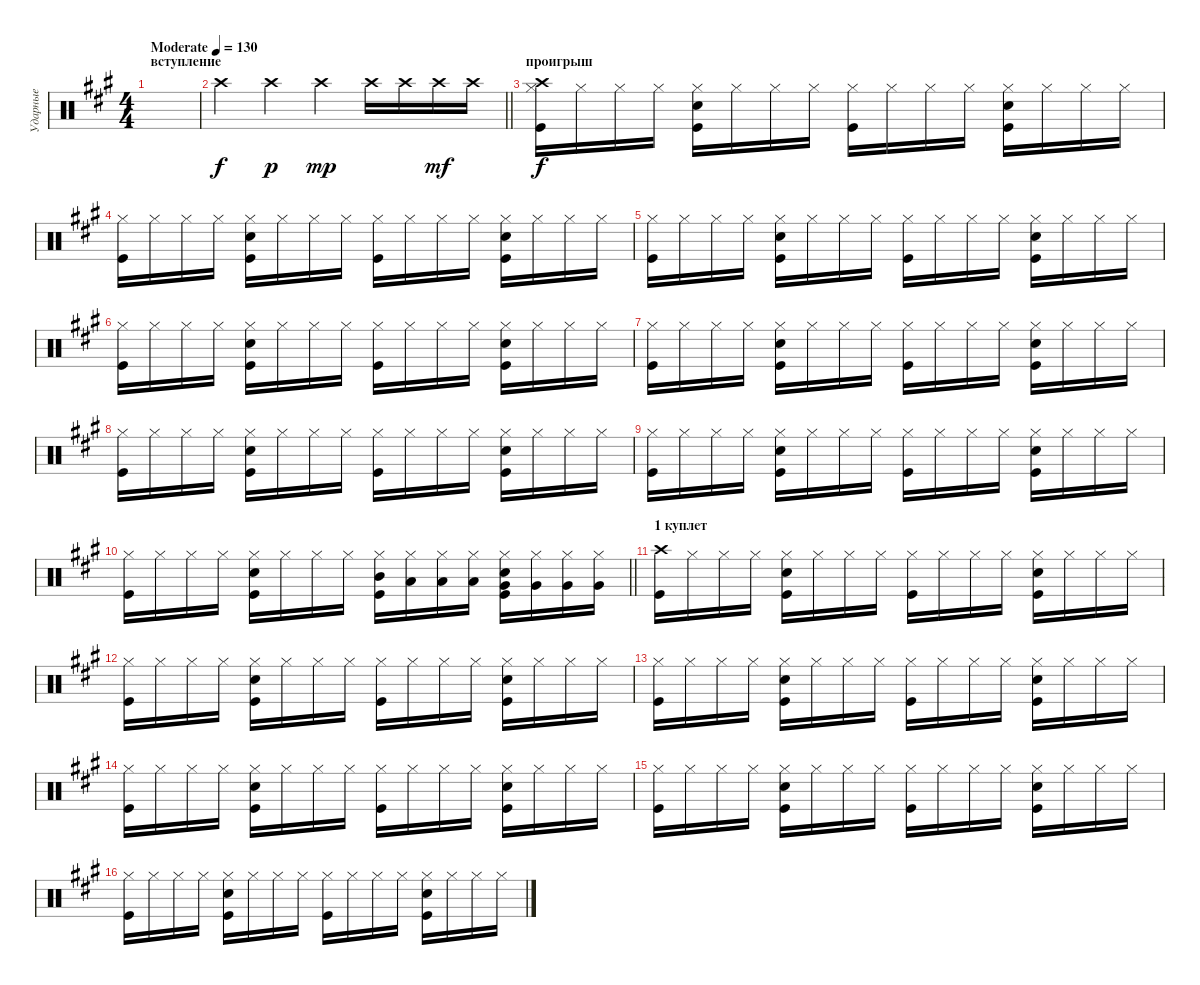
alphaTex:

\track ("Ударные" "Ударные") {instrument percussion}
\staff {score}
\articulation defaults
\ts (4 4)
\section ("" "вступление")
\tempo (130 "Moderate")
\clef neutral
\ks f#minor
|
\barLineRight lightlight "Crash high (hit)".4 "Crash high (hit)".4{dy p} "Crash high (hit)".4{dy mp} "Crash high (hit)".16 "Crash high (hit)".16 "Crash high (hit)".16{dy mf} "Crash high (hit)".16
|
\section ("" "проигрыш")
("Kick (hit)" "Hi-Hat (closed)" "Crash high (hit)").16{dy f} "Hi-Hat (closed)".16 "Hi-Hat (closed)".16 "Hi-Hat (closed)".16 ("Hi-Hat (closed)" "Snare (hit) 2" "Kick (hit)").16 "Hi-Hat (closed)".16 "Hi-Hat (closed)".16 "Hi-Hat (closed)".16 ("Hi-Hat (closed)" "Kick (hit)").16 "Hi-Hat (closed)".16 "Hi-Hat (closed)".16 "Hi-Hat (closed)".16 ("Hi-Hat (closed)" "Snare (hit) 2" "Kick (hit)").16 "Hi-Hat (closed)".16 "Hi-Hat (closed)".16 "Hi-Hat (closed)".16 |
("Hi-Hat (closed)" "Kick (hit)").16 "Hi-Hat (closed)".16 "Hi-Hat (closed)".16 "Hi-Hat (closed)".16 ("Hi-Hat (closed)" "Snare (hit) 2" "Kick (hit)").16 "Hi-Hat (closed)".16 "Hi-Hat (closed)".16 "Hi-Hat (closed)".16 ("Hi-Hat (closed)" "Kick (hit)").16 "Hi-Hat (closed)".16 "Hi-Hat (closed)".16 "Hi-Hat (closed)".16 ("Hi-Hat (closed)" "Snare (hit) 2" "Kick (hit)").16 "Hi-Hat (closed)".16 "Hi-Hat (closed)".16 "Hi-Hat (closed)".16 |
("Hi-Hat (closed)" "Kick (hit)").16 "Hi-Hat (closed)".16 "Hi-Hat (closed)".16 "Hi-Hat (closed)".16 ("Hi-Hat (closed)" "Snare (hit) 2" "Kick (hit)").16 "Hi-Hat (closed)".16 "Hi-Hat (closed)".16 "Hi-Hat (closed)".16 ("Hi-Hat (closed)" "Kick (hit)").16 "Hi-Hat (closed)".16 "Hi-Hat (closed)".16 "Hi-Hat (closed)".16 ("Hi-Hat (closed)" "Snare (hit) 2" "Kick (hit)").16 "Hi-Hat (closed)".16 "Hi-Hat (closed)".16 "Hi-Hat (closed)".16 |
("Hi-Hat (closed)" "Kick (hit)").16 "Hi-Hat (closed)".16 "Hi-Hat (closed)".16 "Hi-Hat (closed)".16 ("Hi-Hat (closed)" "Snare (hit) 2" "Kick (hit)").16 "Hi-Hat (closed)".16 "Hi-Hat (closed)".16 "Hi-Hat (closed)".16 ("Hi-Hat (closed)" "Kick (hit)").16 "Hi-Hat (closed)".16 "Hi-Hat (closed)".16 "Hi-Hat (closed)".16 ("Hi-Hat (closed)" "Snare (hit) 2" "Kick (hit)").16 "Hi-Hat (closed)".16 "Hi-Hat (closed)".16 "Hi-Hat (closed)".16 |
("Kick (hit)" "Hi-Hat (closed)").16 "Hi-Hat (closed)".16 "Hi-Hat (closed)".16 "Hi-Hat (closed)".16 ("Hi-Hat (closed)" "Snare (hit) 2" "Kick (hit)").16 "Hi-Hat (closed)".16 "Hi-Hat (closed)".16 "Hi-Hat (closed)".16 ("Hi-Hat (closed)" "Kick (hit)").16 "Hi-Hat (closed)".16 "Hi-Hat (closed)".16 "Hi-Hat (closed)".16 ("Hi-Hat (closed)" "Snare (hit) 2" "Kick (hit)").16 "Hi-Hat (closed)".16 "Hi-Hat (closed)".16 "Hi-Hat (closed)".16 |
("Hi-Hat (closed)" "Kick (hit)").16 "Hi-Hat (closed)".16 "Hi-Hat (closed)".16 "Hi-Hat (closed)".16 ("Hi-Hat (closed)" "Snare (hit) 2" "Kick (hit)").16 "Hi-Hat (closed)".16 "Hi-Hat (closed)".16 "Hi-Hat (closed)".16 ("Hi-Hat (closed)" "Kick (hit)").16 "Hi-Hat (closed)".16 "Hi-Hat (closed)".16 "Hi-Hat (closed)".16 ("Hi-Hat (closed)" "Snare (hit) 2" "Kick (hit)").16 "Hi-Hat (closed)".16 "Hi-Hat (closed)".16 "Hi-Hat (closed)".16 |
("Hi-Hat (closed)" "Kick (hit)").16 "Hi-Hat (closed)".16 "Hi-Hat (closed)".16 "Hi-Hat (closed)".16 ("Hi-Hat (closed)" "Snare (hit) 2" "Kick (hit)").16 "Hi-Hat (closed)".16 "Hi-Hat (closed)".16 "Hi-Hat (closed)".16 ("Hi-Hat (closed)" "Kick (hit)").16 "Hi-Hat (closed)".16 "Hi-Hat (closed)".16 "Hi-Hat (closed)".16 ("Hi-Hat (closed)" "Snare (hit) 2" "Kick (hit)").16 "Hi-Hat (closed)".16 "Hi-Hat (closed)".16 "Hi-Hat (closed)".16 |
\barLineRight lightlight
("Hi-Hat (closed)" "Kick (hit)").16 "Hi-Hat (closed)".16 "Hi-Hat (closed)".16 "Hi-Hat (closed)".16 ("Hi-Hat (closed)" "Snare (hit) 2" "Kick (hit)").16 "Hi-Hat (closed)".16 "Hi-Hat (closed)".16 "Hi-Hat (closed)".16 ("Hi-Hat (closed)" "Kick (hit)" "Mid Tom (hit)").16 ("Hi-Hat (closed)" "Low Tom (hit)").16 ("Hi-Hat (closed)" "Low Tom (hit)").16 ("Hi-Hat (closed)" "Low Tom (hit)").16 ("Hi-Hat (closed)" "Snare (hit) 2" "Kick (hit)" "Very Low Tom (hit)").16 ("Hi-Hat (closed)" "Very Low Tom (hit)").16 ("Hi-Hat (closed)" "Very Low Tom (hit)").16 ("Hi-Hat (closed)" "Very Low Tom (hit)").16 |
\section ("" "1 куплет")
("Kick (hit)" "Crash high (hit)").16 "Hi-Hat (closed)".16 "Hi-Hat (closed)".16 "Hi-Hat (closed)".16 ("Hi-Hat (closed)" "Snare (hit) 2" "Kick (hit)").16 "Hi-Hat (closed)".16 "Hi-Hat (closed)".16 "Hi-Hat (closed)".16 ("Hi-Hat (closed)" "Kick (hit)").16 "Hi-Hat (closed)".16 "Hi-Hat (closed)".16 "Hi-Hat (closed)".16 ("Hi-Hat (closed)" "Snare (hit) 2" "Kick (hit)").16 "Hi-Hat (closed)".16 "Hi-Hat (closed)".16 "Hi-Hat (closed)".16 |
("Hi-Hat (closed)" "Kick (hit)").16 "Hi-Hat (closed)".16 "Hi-Hat (closed)".16 "Hi-Hat (closed)".16 ("Hi-Hat (closed)" "Snare (hit) 2" "Kick (hit)").16 "Hi-Hat (closed)".16 "Hi-Hat (closed)".16 "Hi-Hat (closed)".16 ("Hi-Hat (closed)" "Kick (hit)").16 "Hi-Hat (closed)".16 "Hi-Hat (closed)".16 "Hi-Hat (closed)".16 ("Hi-Hat (closed)" "Snare (hit) 2" "Kick (hit)").16 "Hi-Hat (closed)".16 "Hi-Hat (closed)".16 "Hi-Hat (closed)".16 |
("Hi-Hat (closed)" "Kick (hit)").16 "Hi-Hat (closed)".16 "Hi-Hat (closed)".16 "Hi-Hat (closed)".16 ("Hi-Hat (closed)" "Snare (hit) 2" "Kick (hit)").16 "Hi-Hat (closed)".16 "Hi-Hat (closed)".16 "Hi-Hat (closed)".16 ("Hi-Hat (closed)" "Kick (hit)").16 "Hi-Hat (closed)".16 "Hi-Hat (closed)".16 "Hi-Hat (closed)".16 ("Hi-Hat (closed)" "Snare (hit) 2" "Kick (hit)").16 "Hi-Hat (closed)".16 "Hi-Hat (closed)".16 "Hi-Hat (closed)".16 |
("Hi-Hat (closed)" "Kick (hit)").16 "Hi-Hat (closed)".16 "Hi-Hat (closed)".16 "Hi-Hat (closed)".16 ("Hi-Hat (closed)" "Snare (hit) 2" "Kick (hit)").16 "Hi-Hat (closed)".16 "Hi-Hat (closed)".16 "Hi-Hat (closed)".16 ("Hi-Hat (closed)" "Kick (hit)").16 "Hi-Hat (closed)".16 "Hi-Hat (closed)".16 "Hi-Hat (closed)".16 ("Hi-Hat (closed)" "Snare (hit) 2" "Kick (hit)").16 "Hi-Hat (closed)".16 "Hi-Hat (closed)".16 "Hi-Hat (closed)".16 |
("Hi-Hat (closed)" "Kick (hit)").16 "Hi-Hat (closed)".16 "Hi-Hat (closed)".16 "Hi-Hat (closed)".16 ("Hi-Hat (closed)" "Snare (hit) 2" "Kick (hit)").16 "Hi-Hat (closed)".16 "Hi-Hat (closed)".16 "Hi-Hat (closed)".16 ("Hi-Hat (closed)" "Kick (hit)").16 "Hi-Hat (closed)".16 "Hi-Hat (closed)".16 "Hi-Hat (closed)".16 ("Hi-Hat (closed)" "Snare (hit) 2" "Kick (hit)").16 "Hi-Hat (closed)".16 "Hi-Hat (closed)".16 "Hi-Hat (closed)".16 |
("Hi-Hat (closed)" "Kick (hit)").16 "Hi-Hat (closed)".16 "Hi-Hat (closed)".16 "Hi-Hat (closed)".16 ("Hi-Hat (closed)" "Snare (hit) 2" "Kick (hit)").16 "Hi-Hat (closed)".16 "Hi-Hat (closed)".16 "Hi-Hat (closed)".16 ("Hi-Hat (closed)" "Kick (hit)").16 "Hi-Hat (closed)".16 "Hi-Hat (closed)".16 "Hi-Hat (closed)".16 ("Hi-Hat (closed)" "Snare (hit) 2" "Kick (hit)").16 "Hi-Hat (closed)".16 "Hi-Hat (closed)".16 "Hi-Hat (closed)".16
